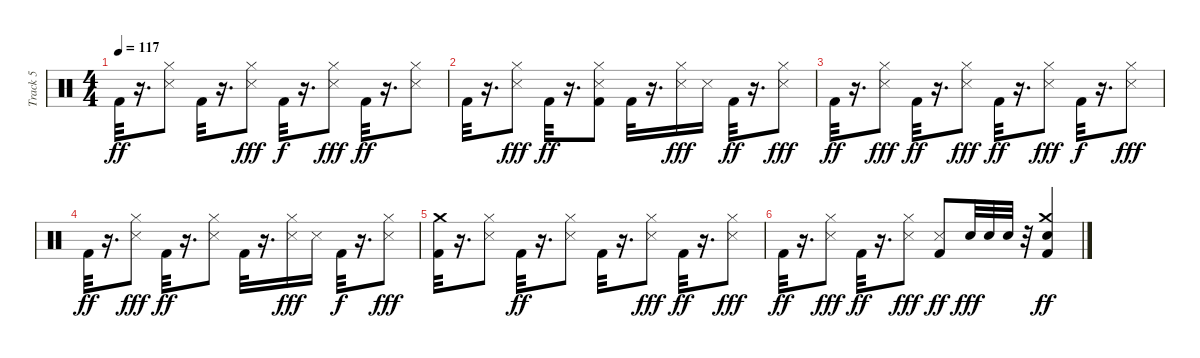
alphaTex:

\track ("Track 5" "Track 5") {instrument percussion}
\staff {score}
\articulation defaults
\ts (4 4)
\tempo 117
\clef neutral
\ks c "Kick (hit) 2".32{dy ff}
r.16{d} ("Snare (side stick) 3" "Hi-Hat (closed)").8 "Kick (hit) 2".32 r.16{d} ("Snare (side stick) 3" "Hi-Hat (closed)").8{dy fff} "Kick (hit) 2".32{dy f} r.16{d} ("Snare (side stick) 3" "Hi-Hat (closed)").8{dy fff} "Kick (hit) 2".32{dy ff} r.16{d} ("Snare (side stick) 3" "Hi-Hat (closed)").8 |
"Kick (hit) 2".32 r.16{d} ("Snare (side stick) 3" "Hi-Hat (closed)").8{dy fff} "Kick (hit) 2".32{dy ff} r.16{d} ("Hi-Hat (closed)" "Snare (side stick) 3" "Kick (hit) 2").8 "Kick (hit) 2".32 r.16{d} ("Snare (side stick) 3" "Hi-Hat (closed)").16{dy fff} "Snare (side stick) 3".16 "Kick (hit) 2".32{dy ff} r.16{d} ("Snare (side stick) 3" "Hi-Hat (closed)").8{dy fff} |
"Kick (hit) 2".32{dy ff} r.16{d} ("Snare (side stick) 3" "Hi-Hat (closed)").8{dy fff} "Kick (hit) 2".32{dy ff} r.16{d} ("Snare (side stick) 3" "Hi-Hat (closed)").8{dy fff} "Kick (hit) 2".32{dy ff} r.16{d} ("Hi-Hat (closed)" "Snare (side stick) 3").8{dy fff} "Kick (hit) 2".32{dy f} r.16{d} ("Snare (side stick) 3" "Hi-Hat (closed)").8{dy fff} |
"Kick (hit) 2".32{dy ff} r.16{d} ("Snare (side stick) 3" "Hi-Hat (closed)").8{dy fff} "Kick (hit) 2".32{dy ff} r.16{d} ("Snare (side stick) 3" "Hi-Hat (closed)").8 "Kick (hit) 2".32 r.16{d} ("Snare (side stick) 3" "Hi-Hat (closed)").16{dy fff} "Snare (side stick) 3".16 "Kick (hit) 2".32{dy f} r.16{d} ("Hi-Hat (closed)" "Snare (side stick) 3").8{dy fff} |
("Crash medium (hit)" "Kick (hit) 2").32 r.16{d} ("Snare (side stick) 3" "Hi-Hat (closed)").8{volume 14} "Kick (hit) 2".32{dy ff} r.16{d} ("Snare (side stick) 3" "Hi-Hat (closed)").8 "Kick (hit) 2".32 r.16{d} ("Hi-Hat (closed)" "Snare (side stick) 3").8{dy fff} "Kick (hit) 2".32{dy ff} r.16{d} ("Hi-Hat (closed)" "Snare (side stick) 3").8{dy fff} |
"Kick (hit) 2".32{dy ff} r.16{d} ("Snare (side stick) 3" "Hi-Hat (closed)").8{dy fff} "Kick (hit) 2".32{dy ff} r.16{d} ("Hi-Hat (closed)" "Snare (side stick) 3").8{dy fff} ("Snare (side stick) 3" "Kick (hit) 2").8{dy ff} "Snare (hit) 2".32{dy fff} "Snare (hit) 2".32 "Snare (hit) 2".32 r.32 ("Snare (hit) 2" "Crash medium (hit)" "Kick (hit) 2").4{dy ff}
